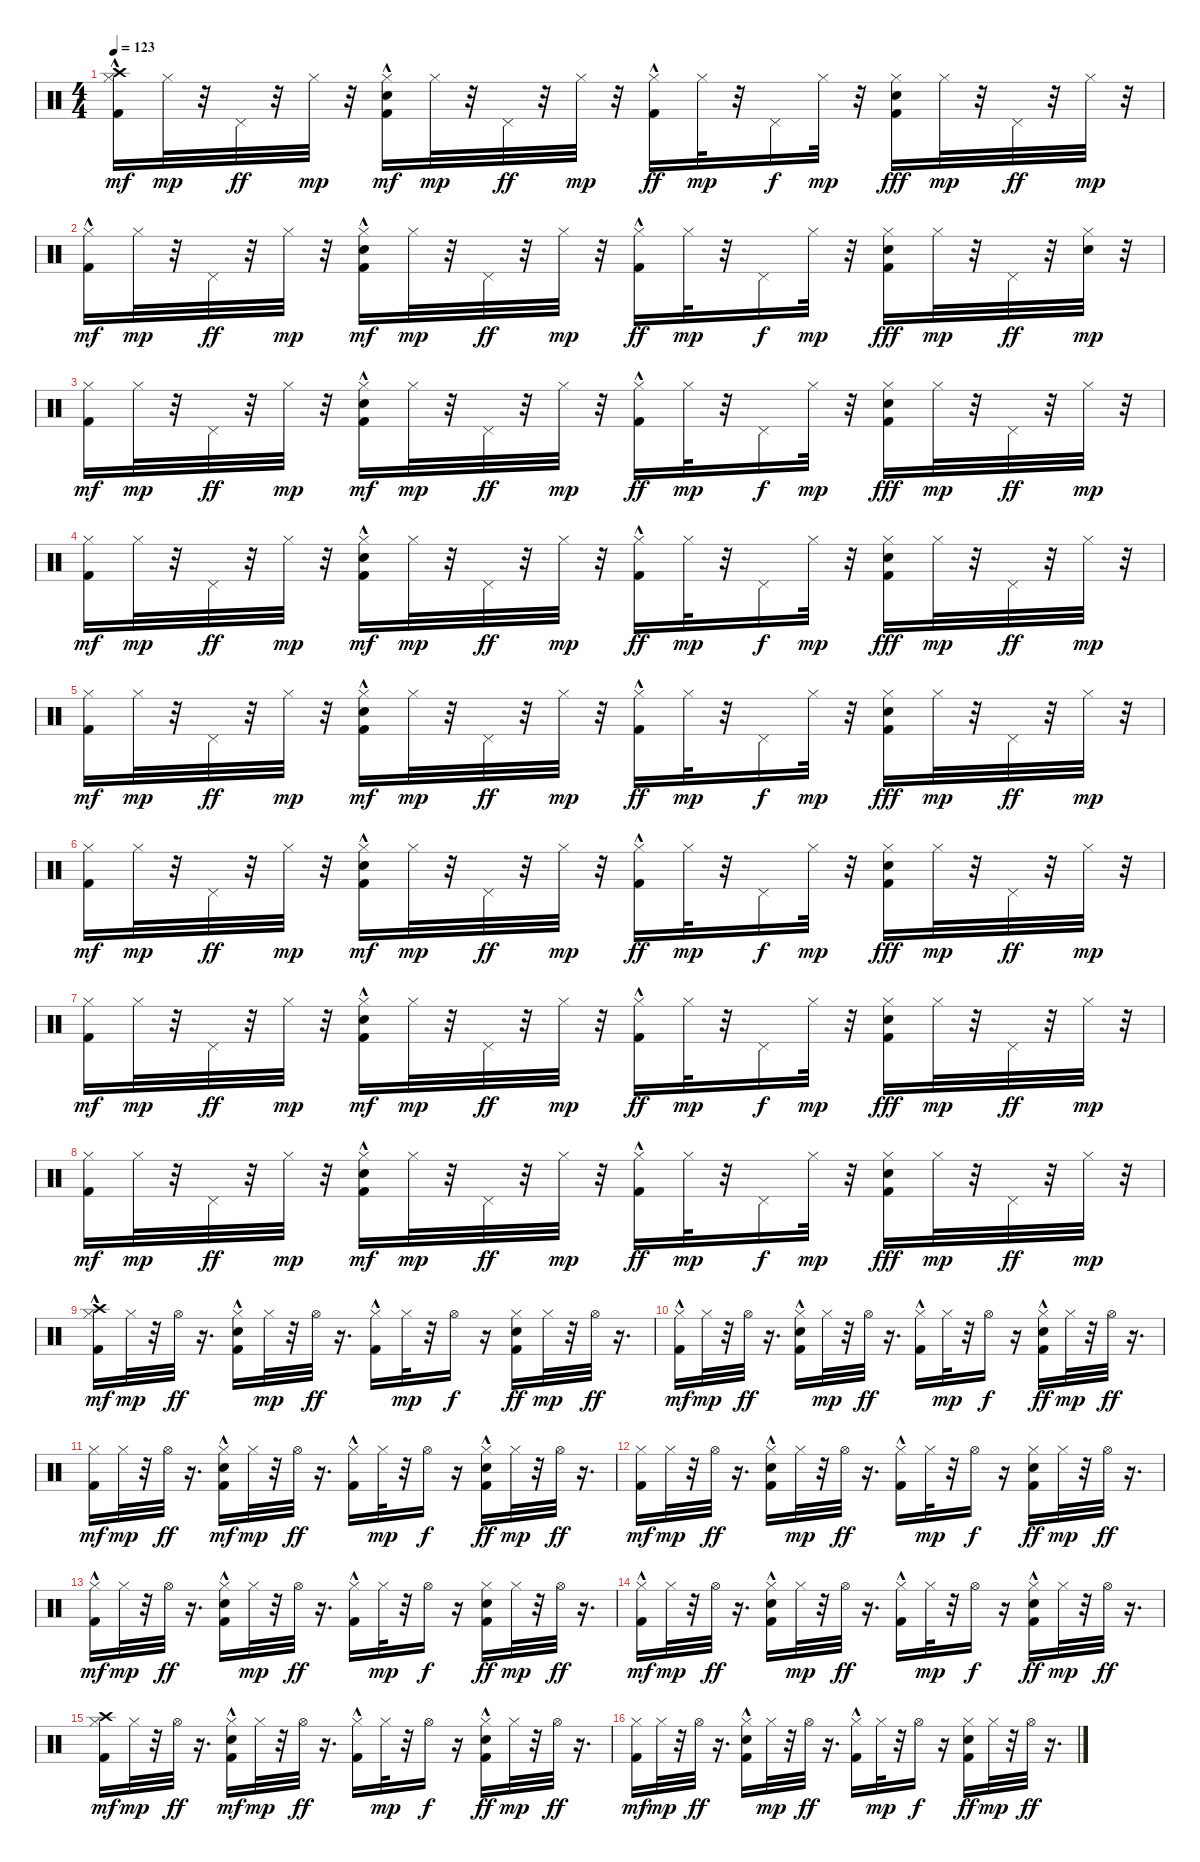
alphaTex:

\track "" {instrument percussion}
\staff {score}
\articulation defaults
\ts (4 4)
\tempo 123
\clef neutral
\ks c
("Kick (hit) 2"{hac} "Crash high (hit)" "Hi-Hat (closed)").16{dy mf} "Hi-Hat (closed)".32{dy mp} r.32 "Pedal Hi-Hat (hit)".32{dy ff} r.32 "Hi-Hat (closed)".32{dy mp} r.32 ("Kick (hit) 2"{hac} "Snare (hit) 2" "Hi-Hat (closed)").16{dy mf} "Hi-Hat (closed)".32{dy mp} r.32 "Pedal Hi-Hat (hit)".32{dy ff} r.32 "Hi-Hat (closed)".32{dy mp} r.32 ("Kick (hit) 2"{hac} "Hi-Hat (closed)").16{dy ff} "Hi-Hat (closed)".32{dy mp} r.32 "Pedal Hi-Hat (hit)".16{dy f} "Hi-Hat (closed)".32{dy mp} r.32 ("Kick (hit) 2" "Snare (hit) 2" "Hi-Hat (closed)").16{dy fff} "Hi-Hat (closed)".32{dy mp} r.32 "Pedal Hi-Hat (hit)".32{dy ff} r.32 "Hi-Hat (closed)".32{dy mp} r.32 |
("Kick (hit) 2"{hac} "Hi-Hat (closed)").16{dy mf} "Hi-Hat (closed)".32{dy mp} r.32 "Pedal Hi-Hat (hit)".32{dy ff} r.32 "Hi-Hat (closed)".32{dy mp} r.32 ("Kick (hit) 2"{hac} "Snare (hit) 2" "Hi-Hat (closed)").16{dy mf} "Hi-Hat (closed)".32{dy mp} r.32 "Pedal Hi-Hat (hit)".32{dy ff} r.32 "Hi-Hat (closed)".32{dy mp} r.32 ("Kick (hit) 2"{hac} "Hi-Hat (closed)").16{dy ff} "Hi-Hat (closed)".32{dy mp} r.32 "Pedal Hi-Hat (hit)".16{dy f} "Hi-Hat (closed)".32{dy mp} r.32 ("Kick (hit) 2" "Snare (hit) 2" "Hi-Hat (closed)").16{dy fff} "Hi-Hat (closed)".32{dy mp} r.32 "Pedal Hi-Hat (hit)".32{dy ff} r.32 ("Hi-Hat (closed)" "Snare (hit) 2").32{dy mp} r.32 |
("Kick (hit) 2" "Hi-Hat (closed)").16{dy mf} "Hi-Hat (closed)".32{dy mp} r.32 "Pedal Hi-Hat (hit)".32{dy ff} r.32 "Hi-Hat (closed)".32{dy mp} r.32 ("Kick (hit) 2"{hac} "Snare (hit) 2" "Hi-Hat (closed)").16{dy mf} "Hi-Hat (closed)".32{dy mp} r.32 "Pedal Hi-Hat (hit)".32{dy ff} r.32 "Hi-Hat (closed)".32{dy mp} r.32 ("Kick (hit) 2"{hac} "Hi-Hat (closed)").16{dy ff} "Hi-Hat (closed)".32{dy mp} r.32 "Pedal Hi-Hat (hit)".16{dy f} "Hi-Hat (closed)".32{dy mp} r.32 ("Kick (hit) 2" "Snare (hit) 2" "Hi-Hat (closed)").16{dy fff} "Hi-Hat (closed)".32{dy mp} r.32 "Pedal Hi-Hat (hit)".32{dy ff} r.32 "Hi-Hat (closed)".32{dy mp} r.32 |
("Kick (hit) 2" "Hi-Hat (closed)").16{dy mf} "Hi-Hat (closed)".32{dy mp} r.32 "Pedal Hi-Hat (hit)".32{dy ff} r.32 "Hi-Hat (closed)".32{dy mp} r.32 ("Kick (hit) 2"{hac} "Snare (hit) 2" "Hi-Hat (closed)").16{dy mf} "Hi-Hat (closed)".32{dy mp} r.32 "Pedal Hi-Hat (hit)".32{dy ff} r.32 "Hi-Hat (closed)".32{dy mp} r.32 ("Kick (hit) 2"{hac} "Hi-Hat (closed)").16{dy ff} "Hi-Hat (closed)".32{dy mp} r.32 "Pedal Hi-Hat (hit)".16{dy f} "Hi-Hat (closed)".32{dy mp} r.32 ("Kick (hit) 2" "Snare (hit) 2" "Hi-Hat (closed)").16{dy fff} "Hi-Hat (closed)".32{dy mp} r.32 "Pedal Hi-Hat (hit)".32{dy ff} r.32 "Hi-Hat (closed)".32{dy mp} r.32 |
("Kick (hit) 2" "Hi-Hat (closed)").16{dy mf} "Hi-Hat (closed)".32{dy mp} r.32 "Pedal Hi-Hat (hit)".32{dy ff} r.32 "Hi-Hat (closed)".32{dy mp} r.32 ("Kick (hit) 2"{hac} "Snare (hit) 2" "Hi-Hat (closed)").16{dy mf} "Hi-Hat (closed)".32{dy mp} r.32 "Pedal Hi-Hat (hit)".32{dy ff} r.32 "Hi-Hat (closed)".32{dy mp} r.32 ("Kick (hit) 2"{hac} "Hi-Hat (closed)").16{dy ff} "Hi-Hat (closed)".32{dy mp} r.32 "Pedal Hi-Hat (hit)".16{dy f} "Hi-Hat (closed)".32{dy mp} r.32 ("Kick (hit) 2" "Snare (hit) 2" "Hi-Hat (closed)").16{dy fff} "Hi-Hat (closed)".32{dy mp} r.32 "Pedal Hi-Hat (hit)".32{dy ff} r.32 "Hi-Hat (closed)".32{dy mp} r.32 |
("Kick (hit) 2" "Hi-Hat (closed)").16{dy mf} "Hi-Hat (closed)".32{dy mp} r.32 "Pedal Hi-Hat (hit)".32{dy ff} r.32 "Hi-Hat (closed)".32{dy mp} r.32 ("Kick (hit) 2"{hac} "Snare (hit) 2" "Hi-Hat (closed)").16{dy mf} "Hi-Hat (closed)".32{dy mp} r.32 "Pedal Hi-Hat (hit)".32{dy ff} r.32 "Hi-Hat (closed)".32{dy mp} r.32 ("Kick (hit) 2"{hac} "Hi-Hat (closed)").16{dy ff} "Hi-Hat (closed)".32{dy mp} r.32 "Pedal Hi-Hat (hit)".16{dy f} "Hi-Hat (closed)".32{dy mp} r.32 ("Kick (hit) 2" "Snare (hit) 2" "Hi-Hat (closed)").16{dy fff} "Hi-Hat (closed)".32{dy mp} r.32 "Pedal Hi-Hat (hit)".32{dy ff} r.32 "Hi-Hat (closed)".32{dy mp} r.32 |
("Kick (hit) 2" "Hi-Hat (closed)").16{dy mf} "Hi-Hat (closed)".32{dy mp} r.32 "Pedal Hi-Hat (hit)".32{dy ff} r.32 "Hi-Hat (closed)".32{dy mp} r.32 ("Kick (hit) 2"{hac} "Snare (hit) 2" "Hi-Hat (closed)").16{dy mf} "Hi-Hat (closed)".32{dy mp} r.32 "Pedal Hi-Hat (hit)".32{dy ff} r.32 "Hi-Hat (closed)".32{dy mp} r.32 ("Kick (hit) 2"{hac} "Hi-Hat (closed)").16{dy ff} "Hi-Hat (closed)".32{dy mp} r.32 "Pedal Hi-Hat (hit)".16{dy f} "Hi-Hat (closed)".32{dy mp} r.32 ("Kick (hit) 2" "Snare (hit) 2" "Hi-Hat (closed)").16{dy fff} "Hi-Hat (closed)".32{dy mp} r.32 "Pedal Hi-Hat (hit)".32{dy ff} r.32 "Hi-Hat (closed)".32{dy mp} r.32 |
("Kick (hit) 2" "Hi-Hat (closed)").16{dy mf} "Hi-Hat (closed)".32{dy mp} r.32 "Pedal Hi-Hat (hit)".32{dy ff} r.32 "Hi-Hat (closed)".32{dy mp} r.32 ("Kick (hit) 2"{hac} "Snare (hit) 2" "Hi-Hat (closed)").16{dy mf} "Hi-Hat (closed)".32{dy mp} r.32 "Pedal Hi-Hat (hit)".32{dy ff} r.32 "Hi-Hat (closed)".32{dy mp} r.32 ("Kick (hit) 2"{hac} "Hi-Hat (closed)").16{dy ff} "Hi-Hat (closed)".32{dy mp} r.32 "Pedal Hi-Hat (hit)".16{dy f} "Hi-Hat (closed)".32{dy mp} r.32 ("Kick (hit) 2" "Snare (hit) 2" "Hi-Hat (closed)").16{dy fff} "Hi-Hat (closed)".32{dy mp} r.32 "Pedal Hi-Hat (hit)".32{dy ff} r.32 "Hi-Hat (closed)".32{dy mp} r.32 |
("Kick (hit) 2"{hac} "Crash high (hit)" "Hi-Hat (closed)").16{dy mf} "Hi-Hat (closed)".32{dy mp} r.32 "Hi-Hat (open)".32{dy ff} r.16{d} ("Kick (hit) 2"{hac} "Hi-Hat (closed)" "Snare (hit) 2").16 "Hi-Hat (closed)".32{dy mp} r.32 "Hi-Hat (open)".32{dy ff} r.16{d} ("Kick (hit) 2"{hac} "Hi-Hat (closed)").16 "Hi-Hat (closed)".32{dy mp} r.32 "Hi-Hat (open)".16{dy f} r.16 ("Snare (hit) 2" "Kick (hit) 2" "Hi-Hat (closed)").16{dy ff} "Hi-Hat (closed)".32{dy mp} r.32 "Hi-Hat (open)".32{dy ff} r.16{d} |
("Kick (hit) 2"{hac} "Hi-Hat (closed)").16{dy mf} "Hi-Hat (closed)".32{dy mp} r.32 "Hi-Hat (open)".32{dy ff} r.16{d} ("Kick (hit) 2"{hac} "Hi-Hat (closed)" "Snare (hit) 2").16 "Hi-Hat (closed)".32{dy mp} r.32 "Hi-Hat (open)".32{dy ff} r.16{d} ("Kick (hit) 2"{hac} "Hi-Hat (closed)").16 "Hi-Hat (closed)".32{dy mp} r.32 "Hi-Hat (open)".16{dy f} r.16 ("Snare (hit) 2"{hac} "Kick (hit) 2" "Hi-Hat (closed)").16{dy ff} "Hi-Hat (closed)".32{dy mp} r.32 "Hi-Hat (open)".32{dy ff} r.16{d} |
("Kick (hit) 2" "Hi-Hat (closed)").16{dy mf} "Hi-Hat (closed)".32{dy mp} r.32 "Hi-Hat (open)".32{dy ff} r.16{d} ("Kick (hit) 2"{hac} "Snare (hit) 2"{hac} "Hi-Hat (closed)").16{dy mf} "Hi-Hat (closed)".32{dy mp} r.32 "Hi-Hat (open)".32{dy ff} r.16{d} ("Kick (hit) 2"{hac} "Hi-Hat (closed)").16 "Hi-Hat (closed)".32{dy mp} r.32 "Hi-Hat (open)".16{dy f} r.16 ("Snare (hit) 2"{hac} "Kick (hit) 2" "Hi-Hat (closed)").16{dy ff} "Hi-Hat (closed)".32{dy mp} r.32 "Hi-Hat (open)".32{dy ff} r.16{d} |
("Kick (hit) 2" "Hi-Hat (closed)").16{dy mf} "Hi-Hat (closed)".32{dy mp} r.32 "Hi-Hat (open)".32{dy ff} r.16{d} ("Kick (hit) 2"{hac} "Hi-Hat (closed)" "Snare (hit) 2"{hac}).16 "Hi-Hat (closed)".32{dy mp} r.32 "Hi-Hat (open)".32{dy ff} r.16{d} ("Kick (hit) 2"{hac} "Hi-Hat (closed)").16 "Hi-Hat (closed)".32{dy mp} r.32 "Hi-Hat (open)".16{dy f} r.16 ("Snare (hit) 2" "Kick (hit) 2" "Hi-Hat (closed)").16{dy ff} "Hi-Hat (closed)".32{dy mp} r.32 "Hi-Hat (open)".32{dy ff} r.16{d} |
("Kick (hit) 2"{hac} "Hi-Hat (closed)").16{dy mf} "Hi-Hat (closed)".32{dy mp} r.32 "Hi-Hat (open)".32{dy ff} r.16{d} ("Kick (hit) 2"{hac} "Hi-Hat (closed)" "Snare (hit) 2").16 "Hi-Hat (closed)".32{dy mp} r.32 "Hi-Hat (open)".32{dy ff} r.16{d} ("Kick (hit) 2"{hac} "Hi-Hat (closed)").16 "Hi-Hat (closed)".32{dy mp} r.32 "Hi-Hat (open)".16{dy f} r.16 ("Snare (hit) 2" "Kick (hit) 2" "Hi-Hat (closed)").16{dy ff} "Hi-Hat (closed)".32{dy mp} r.32 "Hi-Hat (open)".32{dy ff} r.16{d} |
("Kick (hit) 2"{hac} "Hi-Hat (closed)").16{dy mf} "Hi-Hat (closed)".32{dy mp} r.32 "Hi-Hat (open)".32{dy ff} r.16{d} ("Kick (hit) 2"{hac} "Hi-Hat (closed)" "Snare (hit) 2").16 "Hi-Hat (closed)".32{dy mp} r.32 "Hi-Hat (open)".32{dy ff} r.16{d} ("Kick (hit) 2"{hac} "Hi-Hat (closed)").16 "Hi-Hat (closed)".32{dy mp} r.32 "Hi-Hat (open)".16{dy f} r.16 ("Snare (hit) 2"{hac} "Kick (hit) 2" "Hi-Hat (closed)").16{dy ff} "Hi-Hat (closed)".32{dy mp} r.32 "Hi-Hat (open)".32{dy ff} r.16{d} |
("Kick (hit) 2" "Crash high (hit)" "Hi-Hat (closed)").16{dy mf} "Hi-Hat (closed)".32{dy mp} r.32 "Hi-Hat (open)".32{dy ff} r.16{d} ("Kick (hit) 2"{hac} "Snare (hit) 2"{hac} "Hi-Hat (closed)").16{dy mf} "Hi-Hat (closed)".32{dy mp} r.32 "Hi-Hat (open)".32{dy ff} r.16{d} ("Kick (hit) 2"{hac} "Hi-Hat (closed)").16 "Hi-Hat (closed)".32{dy mp} r.32 "Hi-Hat (open)".16{dy f} r.16 ("Snare (hit) 2"{hac} "Kick (hit) 2" "Hi-Hat (closed)").16{dy ff} "Hi-Hat (closed)".32{dy mp} r.32 "Hi-Hat (open)".32{dy ff} r.16{d} |
("Kick (hit) 2" "Hi-Hat (closed)").16{dy mf} "Hi-Hat (closed)".32{dy mp} r.32 "Hi-Hat (open)".32{dy ff} r.16{d} ("Kick (hit) 2"{hac} "Hi-Hat (closed)" "Snare (hit) 2"{hac}).16 "Hi-Hat (closed)".32{dy mp} r.32 "Hi-Hat (open)".32{dy ff} r.16{d} ("Kick (hit) 2"{hac} "Hi-Hat (closed)").16 "Hi-Hat (closed)".32{dy mp} r.32 "Hi-Hat (open)".16{dy f} r.16 ("Snare (hit) 2" "Kick (hit) 2" "Hi-Hat (closed)").16{dy ff} "Hi-Hat (closed)".32{dy mp} r.32 "Hi-Hat (open)".32{dy ff} r.16{d}
